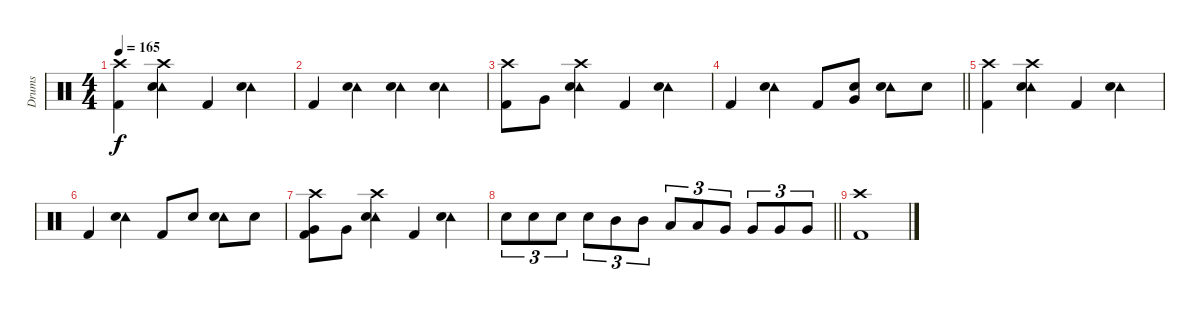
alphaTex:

\track ("Drums" "Drums") {instrument percussion}
\staff {score}
\articulation defaults
\ts (4 4)
\tempo 165
\clef neutral
\ks c
("Crash high (hit)" "Kick (hit) 2").4{dy f} ("Crash high (hit)" "Tambourine (hit)" "Snare (hit) 2").4 "Kick (hit) 2".4 ("Tambourine (hit)" "Snare (hit) 2").4 |
"Kick (hit) 2".4 ("Tambourine (hit)" "Snare (hit) 2").4 ("Tambourine (hit)" "Snare (hit) 2").4 ("Tambourine (hit)" "Snare (hit) 2").4 |
("Crash high (hit)" "Kick (hit) 2").8 "Very Low Tom (hit)".8 ("Crash high (hit)" "Tambourine (hit)" "Snare (hit) 2").4 "Kick (hit) 2".4 ("Tambourine (hit)" "Snare (hit) 2").4 |
\barLineRight lightlight "Kick (hit) 2".4
("Tambourine (hit)" "Snare (hit) 2").4 "Kick (hit) 2".8 ("Snare (hit) 2" "Very Low Tom (hit)").8 ("Tambourine (hit)" "Snare (hit) 2").8 "Snare (hit) 2".8 |
("Crash high (hit)" "Kick (hit) 2").4 ("Crash high (hit)" "Tambourine (hit)" "Snare (hit) 2").4 "Kick (hit) 2".4 ("Tambourine (hit)" "Snare (hit) 2").4 |
"Kick (hit) 2".4 ("Tambourine (hit)" "Snare (hit) 2").4 "Kick (hit) 2".8 "Snare (hit) 2".8 ("Tambourine (hit)" "Snare (hit) 2").8 "Snare (hit) 2".8 |
("Crash high (hit)" "Very Low Tom (hit)" "Kick (hit) 2").8 "Very Low Tom (hit)".8 ("Crash high (hit)" "Tambourine (hit)" "Snare (hit) 2").4 "Kick (hit) 2".4 ("Tambourine (hit)" "Snare (hit) 2").4 |
\barLineRight lightlight "Snare (hit) 2".8{tu (3 2)} "Snare (hit) 2".8{tu (3 2)} "Snare (hit) 2".8{tu (3 2)} "Snare (hit) 2".8{tu (3 2)} "Mid Tom (hit)".8{tu (3 2)} "Mid Tom (hit)".8{tu (3 2)} "Low Tom (hit)".8{tu (3 2)} "Low Tom (hit)".8{tu (3 2)} "Very Low Tom (hit)".8{tu (3 2)} "Very Low Tom (hit)".8{tu (3 2)} "Very Low Tom (hit)".8{tu (3 2)} "Very Low Tom (hit)".8{tu (3 2)}
|
("Crash high (hit)" "Kick (hit) 2").1
